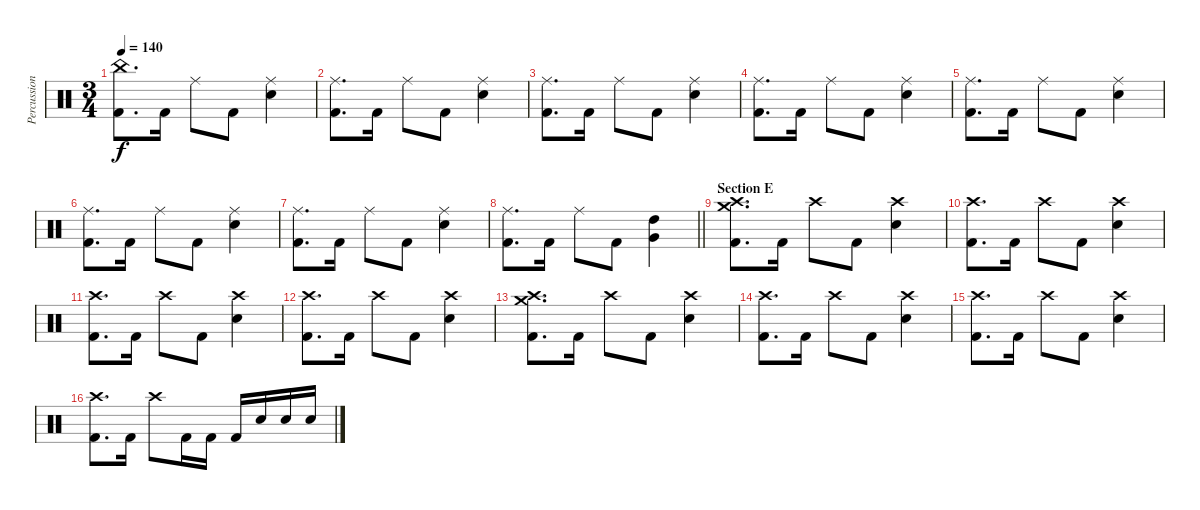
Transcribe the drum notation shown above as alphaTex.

\track ("Percussion" "Percussion") {instrument percussion}
\staff {score}
\articulation defaults
\ts (3 4)
\tempo 140
\clef neutral
\ks c
("China (hit)" "Kick (hit) 2").8{d dy f} "Kick (hit) 2".16 "Ride (middle)".8 "Kick (hit) 2".8 ("Ride (middle)" "Electric Snare (hit)").4 |
("Ride (middle)" "Kick (hit) 2").8{d} "Kick (hit) 2".16 "Ride (middle)".8 "Kick (hit) 2".8 ("Ride (middle)" "Electric Snare (hit)").4 |
("Ride (middle)" "Kick (hit) 2").8{d} "Kick (hit) 2".16 "Ride (middle)".8 "Kick (hit) 2".8 ("Ride (middle)" "Electric Snare (hit)").4 |
("Ride (middle)" "Kick (hit) 2").8{d} "Kick (hit) 2".16 "Ride (middle)".8 "Kick (hit) 2".8 ("Ride (middle)" "Electric Snare (hit)").4 |
("Ride (middle)" "Kick (hit) 2").8{d} "Kick (hit) 2".16 "Ride (middle)".8 "Kick (hit) 2".8 ("Ride (middle)" "Electric Snare (hit)").4 |
("Ride (middle)" "Kick (hit) 2").8{d} "Kick (hit) 2".16 "Ride (middle)".8 "Kick (hit) 2".8 ("Ride (middle)" "Electric Snare (hit)").4 |
("Ride (middle)" "Kick (hit) 2").8{d} "Kick (hit) 2".16 "Ride (middle)".8 "Kick (hit) 2".8 ("Ride (middle)" "Electric Snare (hit)").4 |
\barLineRight lightlight
("Ride (middle)" "Kick (hit) 2").8{d} "Kick (hit) 2".16 "Ride (middle)".8 "Kick (hit) 2".8 ("High Tom (hit)" "Very Low Tom (hit)").4 |
\section ("" "Section E")
("Crash medium (hit)" "Crash high (hit)" "Kick (hit) 2").8{d} "Kick (hit) 2".16 "Crash high (hit)".8 "Kick (hit) 2".8 ("Crash high (hit)" "Electric Snare (hit)").4 |
("Crash high (hit)" "Kick (hit) 2").8{d} "Kick (hit) 2".16 "Crash high (hit)".8 "Kick (hit) 2".8 ("Crash high (hit)" "Electric Snare (hit)").4 |
("Crash high (hit)" "Kick (hit) 2").8{d} "Kick (hit) 2".16 "Crash high (hit)".8 "Kick (hit) 2".8 ("Crash high (hit)" "Electric Snare (hit)").4 |
("Crash high (hit)" "Kick (hit) 2").8{d} "Kick (hit) 2".16 "Crash high (hit)".8 "Kick (hit) 2".8 ("Crash high (hit)" "Electric Snare (hit)").4 |
("Crash high (hit)" "Crash medium (hit)" "Kick (hit) 2").8{d} "Kick (hit) 2".16 "Crash high (hit)".8 "Kick (hit) 2".8 ("Crash high (hit)" "Electric Snare (hit)").4 |
("Crash high (hit)" "Kick (hit) 2").8{d} "Kick (hit) 2".16 "Crash high (hit)".8 "Kick (hit) 2".8 ("Crash high (hit)" "Electric Snare (hit)").4 |
("Crash high (hit)" "Kick (hit) 2").8{d} "Kick (hit) 2".16 "Crash high (hit)".8 "Kick (hit) 2".8 ("Crash high (hit)" "Electric Snare (hit)").4 |
("Crash high (hit)" "Kick (hit) 2").8{d} "Kick (hit) 2".16 "Crash high (hit)".8 "Kick (hit) 2".16 "Kick (hit) 2".16 "Kick (hit) 2".16 "Electric Snare (hit)".16 "Electric Snare (hit)".16 "Electric Snare (hit)".16
